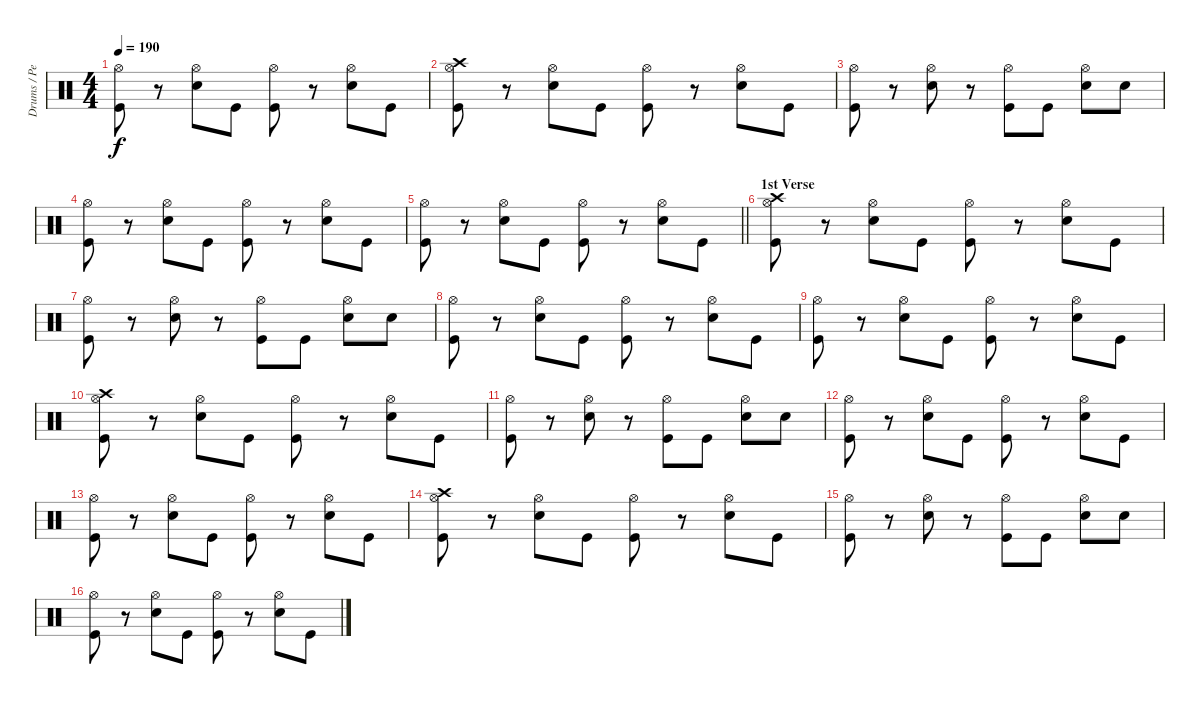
\track ("Drums / Percussion" "Drums / Pe") {instrument percussion}
\staff {score}
\articulation defaults
\ts (4 4)
\tempo 190
\clef neutral
\ks c
("Hi-Hat (open)" "Kick (hit)").8{dy f} r.8 ("Hi-Hat (open)" "Electric Snare (hit)").8 "Kick (hit)".8 ("Hi-Hat (open)" "Kick (hit)").8 r.8 ("Hi-Hat (open)" "Electric Snare (hit)").8 "Kick (hit)".8 |
("Hi-Hat (open)" "Crash high (hit)" "Kick (hit)").8 r.8 ("Hi-Hat (open)" "Electric Snare (hit)").8 "Kick (hit)".8 ("Hi-Hat (open)" "Kick (hit)").8 r.8 ("Hi-Hat (open)" "Electric Snare (hit)").8 "Kick (hit)".8 |
("Hi-Hat (open)" "Kick (hit)").8 r.8 ("Hi-Hat (open)" "Electric Snare (hit)").8 r.8 ("Hi-Hat (open)" "Kick (hit)").8 "Kick (hit)".8 ("Hi-Hat (open)" "Electric Snare (hit)").8 "Electric Snare (hit)".8 |
("Hi-Hat (open)" "Kick (hit)").8 r.8 ("Hi-Hat (open)" "Electric Snare (hit)").8 "Kick (hit)".8 ("Hi-Hat (open)" "Kick (hit)").8 r.8 ("Hi-Hat (open)" "Electric Snare (hit)").8 "Kick (hit)".8 |
\barLineRight lightlight
("Hi-Hat (open)" "Kick (hit)").8 r.8 ("Hi-Hat (open)" "Electric Snare (hit)").8 "Kick (hit)".8 ("Hi-Hat (open)" "Kick (hit)").8 r.8 ("Hi-Hat (open)" "Electric Snare (hit)").8 "Kick (hit)".8 |
\section ("" "1st Verse")
("Hi-Hat (open)" "Crash high (hit)" "Kick (hit)").8 r.8 ("Hi-Hat (open)" "Electric Snare (hit)").8 "Kick (hit)".8 ("Hi-Hat (open)" "Kick (hit)").8 r.8 ("Hi-Hat (open)" "Electric Snare (hit)").8 "Kick (hit)".8 |
("Hi-Hat (open)" "Kick (hit)").8 r.8 ("Hi-Hat (open)" "Electric Snare (hit)").8 r.8 ("Hi-Hat (open)" "Kick (hit)").8 "Kick (hit)".8 ("Hi-Hat (open)" "Electric Snare (hit)").8 "Electric Snare (hit)".8 |
("Hi-Hat (open)" "Kick (hit)").8 r.8 ("Hi-Hat (open)" "Electric Snare (hit)").8 "Kick (hit)".8 ("Hi-Hat (open)" "Kick (hit)").8 r.8 ("Hi-Hat (open)" "Electric Snare (hit)").8 "Kick (hit)".8 |
("Hi-Hat (open)" "Kick (hit)").8 r.8 ("Hi-Hat (open)" "Electric Snare (hit)").8 "Kick (hit)".8 ("Hi-Hat (open)" "Kick (hit)").8 r.8 ("Hi-Hat (open)" "Electric Snare (hit)").8 "Kick (hit)".8 |
("Hi-Hat (open)" "Crash high (hit)" "Kick (hit)").8 r.8 ("Hi-Hat (open)" "Electric Snare (hit)").8 "Kick (hit)".8 ("Hi-Hat (open)" "Kick (hit)").8 r.8 ("Hi-Hat (open)" "Electric Snare (hit)").8 "Kick (hit)".8 |
("Hi-Hat (open)" "Kick (hit)").8 r.8 ("Hi-Hat (open)" "Electric Snare (hit)").8 r.8 ("Hi-Hat (open)" "Kick (hit)").8 "Kick (hit)".8 ("Hi-Hat (open)" "Electric Snare (hit)").8 "Electric Snare (hit)".8 |
("Hi-Hat (open)" "Kick (hit)").8 r.8 ("Hi-Hat (open)" "Electric Snare (hit)").8 "Kick (hit)".8 ("Hi-Hat (open)" "Kick (hit)").8 r.8 ("Hi-Hat (open)" "Electric Snare (hit)").8 "Kick (hit)".8 |
("Hi-Hat (open)" "Kick (hit)").8 r.8 ("Hi-Hat (open)" "Electric Snare (hit)").8 "Kick (hit)".8 ("Hi-Hat (open)" "Kick (hit)").8 r.8 ("Hi-Hat (open)" "Electric Snare (hit)").8 "Kick (hit)".8 |
("Hi-Hat (open)" "Crash high (hit)" "Kick (hit)").8 r.8 ("Hi-Hat (open)" "Electric Snare (hit)").8 "Kick (hit)".8 ("Hi-Hat (open)" "Kick (hit)").8 r.8 ("Hi-Hat (open)" "Electric Snare (hit)").8 "Kick (hit)".8 |
("Hi-Hat (open)" "Kick (hit)").8 r.8 ("Hi-Hat (open)" "Electric Snare (hit)").8 r.8 ("Hi-Hat (open)" "Kick (hit)").8 "Kick (hit)".8 ("Hi-Hat (open)" "Electric Snare (hit)").8 "Electric Snare (hit)".8 |
("Hi-Hat (open)" "Kick (hit)").8 r.8 ("Hi-Hat (open)" "Electric Snare (hit)").8 "Kick (hit)".8 ("Hi-Hat (open)" "Kick (hit)").8 r.8 ("Hi-Hat (open)" "Electric Snare (hit)").8 "Kick (hit)".8
